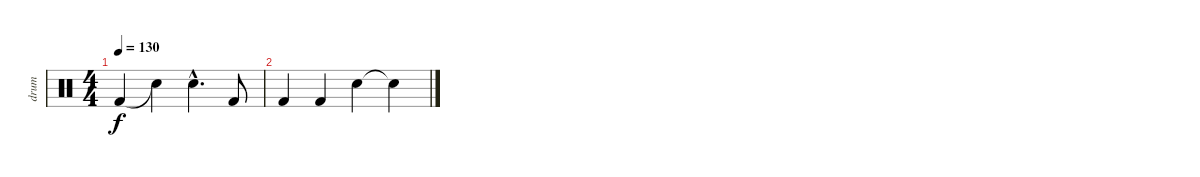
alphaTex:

\track ("drum" "drum") {instrument percussion}
\staff {score}
\articulation defaults
\ts (4 4)
\tempo 130
\clef neutral
\ks c "Kick (hit) 2".4{dy f} "Snare (hit)"{t}.4 "Snare (hit) 2"{hac}.4{d} "Kick (hit) 2".8
|
"Kick (hit) 2".4 "Kick (hit) 2".4 "Snare (hit) 2".4 "Snare (hit)"{t}.4
